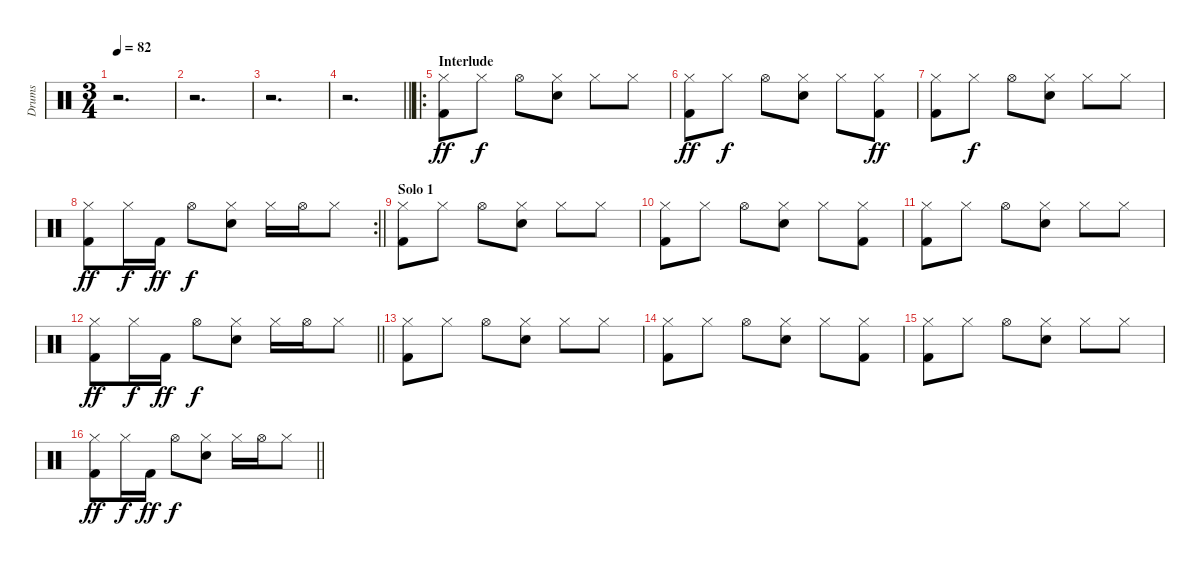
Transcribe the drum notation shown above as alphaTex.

\track ("Drums" "Drums") {instrument percussion}
\staff {score}
\articulation defaults
\ts (3 4)
\tempo 82
\clef neutral
\ks c
r.2{d dy f} |
r.2{d} |
r.2{d} |
\barLineRight lightlight
r.2{d} |
\ro
\section ("" "Interlude")
("Hi-Hat (closed)" "Kick (hit) 2").8{dy ff} "Hi-Hat (closed)".8{dy f} "Hi-Hat (open)".8 ("Hi-Hat (closed)" "Electric Snare (hit)").8 "Hi-Hat (closed)".8 "Hi-Hat (closed)".8 |
("Hi-Hat (closed)" "Kick (hit) 2").8{dy ff} "Hi-Hat (closed)".8{dy f} "Hi-Hat (open)".8 ("Hi-Hat (closed)" "Electric Snare (hit)").8 "Hi-Hat (closed)".8 ("Hi-Hat (closed)" "Kick (hit) 2").8{dy ff} |
("Hi-Hat (closed)" "Kick (hit) 2").8 "Hi-Hat (closed)".8{dy f} "Hi-Hat (open)".8 ("Hi-Hat (closed)" "Electric Snare (hit)").8 "Hi-Hat (closed)".8 "Hi-Hat (closed)".8 |
\rc 2
\barLineRight lightlight
("Hi-Hat (closed)" "Kick (hit) 2").8{dy ff} "Hi-Hat (closed)".16{dy f} "Kick (hit) 2".16{dy ff} "Hi-Hat (open)".8{dy f} ("Hi-Hat (closed)" "Electric Snare (hit)").8 "Hi-Hat (closed)".16 "Hi-Hat (open)".16 "Hi-Hat (closed)".8 |
\section ("" "Solo 1")
("Hi-Hat (closed)" "Kick (hit) 2").8 "Hi-Hat (closed)".8 "Hi-Hat (open)".8 ("Hi-Hat (closed)" "Electric Snare (hit)").8 "Hi-Hat (closed)".8 "Hi-Hat (closed)".8 |
("Hi-Hat (closed)" "Kick (hit) 2").8 "Hi-Hat (closed)".8 "Hi-Hat (open)".8 ("Hi-Hat (closed)" "Electric Snare (hit)").8 "Hi-Hat (closed)".8 ("Hi-Hat (closed)" "Kick (hit) 2").8 |
("Hi-Hat (closed)" "Kick (hit) 2").8 "Hi-Hat (closed)".8 "Hi-Hat (open)".8 ("Hi-Hat (closed)" "Electric Snare (hit)").8 "Hi-Hat (closed)".8 "Hi-Hat (closed)".8 |
\barLineRight lightlight
("Hi-Hat (closed)" "Kick (hit) 2").8{dy ff} "Hi-Hat (closed)".16{dy f} "Kick (hit) 2".16{dy ff} "Hi-Hat (open)".8{dy f} ("Hi-Hat (closed)" "Electric Snare (hit)").8 "Hi-Hat (closed)".16 "Hi-Hat (open)".16 "Hi-Hat (closed)".8 |
("Hi-Hat (closed)" "Kick (hit) 2").8 "Hi-Hat (closed)".8 "Hi-Hat (open)".8 ("Hi-Hat (closed)" "Electric Snare (hit)").8 "Hi-Hat (closed)".8 "Hi-Hat (closed)".8 |
("Hi-Hat (closed)" "Kick (hit) 2").8 "Hi-Hat (closed)".8 "Hi-Hat (open)".8 ("Hi-Hat (closed)" "Electric Snare (hit)").8 "Hi-Hat (closed)".8 ("Hi-Hat (closed)" "Kick (hit) 2").8 |
("Hi-Hat (closed)" "Kick (hit) 2").8 "Hi-Hat (closed)".8 "Hi-Hat (open)".8 ("Hi-Hat (closed)" "Electric Snare (hit)").8 "Hi-Hat (closed)".8 "Hi-Hat (closed)".8 |
\barLineRight lightlight
("Hi-Hat (closed)" "Kick (hit) 2").8{dy ff} "Hi-Hat (closed)".16{dy f} "Kick (hit) 2".16{dy ff} "Hi-Hat (open)".8{dy f} ("Hi-Hat (closed)" "Electric Snare (hit)").8 "Hi-Hat (closed)".16 "Hi-Hat (open)".16 "Hi-Hat (closed)".8
